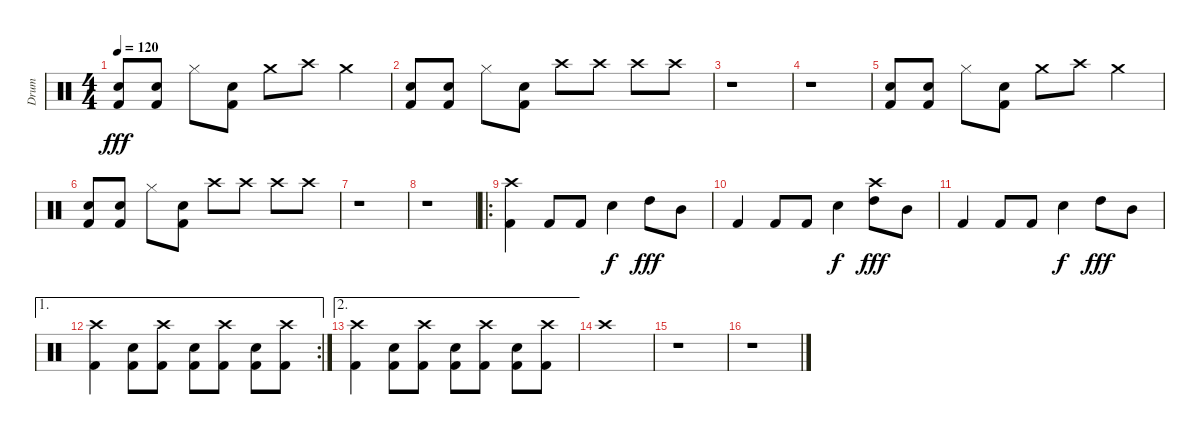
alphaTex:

\track ("Drum" "Drum") {instrument percussion}
\staff {score}
\articulation defaults
\ts (4 4)
\tempo 120
\clef neutral
\ks c
("Electric Snare (hit)" "Kick (hit) 2").8{dy fff} ("Electric Snare (hit)" "Kick (hit) 2").8 "Hi-Hat (closed)".8 ("Electric Snare (hit)" "Kick (hit) 2").8 "Crash medium (hit)".8 "Crash high (hit)".8 "Crash medium (hit)".4 |
("Electric Snare (hit)" "Kick (hit) 2").8 ("Electric Snare (hit)" "Kick (hit) 2").8 "Hi-Hat (closed)".8 ("Electric Snare (hit)" "Kick (hit) 2").8 "Crash high (hit)".8 "Crash high (hit)".8 "Crash high (hit)".8 "Crash high (hit)".8 |
r.1 |
r.1 |
("Electric Snare (hit)" "Kick (hit) 2").8 ("Electric Snare (hit)" "Kick (hit) 2").8 "Hi-Hat (closed)".8 ("Electric Snare (hit)" "Kick (hit) 2").8 "Crash medium (hit)".8 "Crash high (hit)".8 "Crash medium (hit)".4 |
("Electric Snare (hit)" "Kick (hit) 2").8 ("Electric Snare (hit)" "Kick (hit) 2").8 "Hi-Hat (closed)".8 ("Electric Snare (hit)" "Kick (hit) 2").8 "Crash high (hit)".8 "Crash high (hit)".8 "Crash high (hit)".8 "Crash high (hit)".8 |
r.1 |
r.1 |
\ro
("Crash high (hit)" "Kick (hit) 2").4 "Kick (hit) 2".8 "Kick (hit) 2".8 "Electric Snare (hit)".4{dy f} "High Tom (hit)".8{dy fff} "Mid Tom (hit)".8 |
"Kick (hit) 2".4 "Kick (hit) 2".8 "Kick (hit) 2".8 "Electric Snare (hit)".4{dy f} ("Crash high (hit)" "High Tom (hit)").8{dy fff} "Mid Tom (hit)".8 |
"Kick (hit) 2".4 "Kick (hit) 2".8 "Kick (hit) 2".8 "Electric Snare (hit)".4{dy f} "High Tom (hit)".8{dy fff} "Mid Tom (hit)".8 |
\ae 1
\rc 2
("Crash high (hit)" "Kick (hit) 2").4 ("Electric Snare (hit)" "Kick (hit) 2").8 ("Crash high (hit)" "Kick (hit) 2").8 ("Electric Snare (hit)" "Kick (hit) 2").8 ("Crash high (hit)" "Kick (hit) 2").8 ("Electric Snare (hit)" "Kick (hit) 2").8 ("Crash high (hit)" "Kick (hit) 2").8 |
\ae 2
("Crash high (hit)" "Kick (hit) 2").4 ("Electric Snare (hit)" "Kick (hit) 2").8 ("Crash high (hit)" "Kick (hit) 2").8 ("Electric Snare (hit)" "Kick (hit) 2").8 ("Crash high (hit)" "Kick (hit) 2").8 ("Electric Snare (hit)" "Kick (hit) 2").8 ("Crash high (hit)" "Kick (hit) 2").8 |
"Crash high (hit)".1 |
r.1 |
r.1
